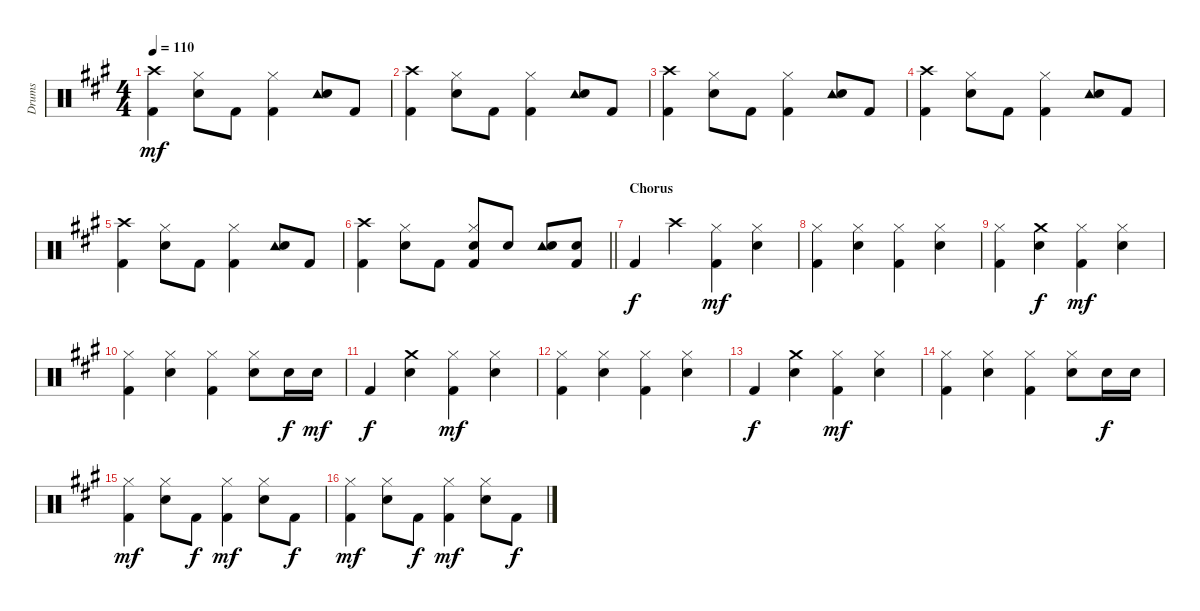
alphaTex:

\track ("Drums" "Drums") {instrument percussion}
\staff {score}
\articulation defaults
\ts (4 4)
\tempo 110
\clef neutral
\ks a
("Crash high (hit)" "Kick (hit) 2").4{dy mf} ("Hi-Hat (closed)" "Snare (hit) 2").8 "Kick (hit) 2".8 ("Hi-Hat (closed)" "Kick (hit) 2").4 ("Tambourine (hit)" "Snare (hit) 2").8 "Kick (hit) 2".8 |
("Crash high (hit)" "Kick (hit) 2").4 ("Hi-Hat (closed)" "Snare (hit) 2").8 "Kick (hit) 2".8 ("Hi-Hat (closed)" "Kick (hit) 2").4 ("Tambourine (hit)" "Snare (hit) 2").8 "Kick (hit) 2".8 |
("Crash high (hit)" "Kick (hit) 2").4 ("Hi-Hat (closed)" "Snare (hit) 2").8 "Kick (hit) 2".8 ("Hi-Hat (closed)" "Kick (hit) 2").4 ("Tambourine (hit)" "Snare (hit) 2").8 "Kick (hit) 2".8 |
("Crash high (hit)" "Kick (hit) 2").4 ("Hi-Hat (closed)" "Snare (hit) 2").8 "Kick (hit) 2".8 ("Hi-Hat (closed)" "Kick (hit) 2").4 ("Tambourine (hit)" "Snare (hit) 2").8 "Kick (hit) 2".8 |
("Crash high (hit)" "Kick (hit) 2").4 ("Hi-Hat (closed)" "Snare (hit) 2").8 "Kick (hit) 2".8 ("Hi-Hat (closed)" "Kick (hit) 2").4 ("Tambourine (hit)" "Snare (hit) 2").8 "Kick (hit) 2".8 |
\barLineRight lightlight
("Crash high (hit)" "Kick (hit) 2").4 ("Hi-Hat (closed)" "Snare (hit) 2").8 "Kick (hit) 2".8 ("Hi-Hat (closed)" "Snare (hit) 2" "Kick (hit) 2").8 "Snare (hit) 2".8 ("Tambourine (hit)" "Snare (hit) 2").8 ("Snare (hit) 2" "Kick (hit) 2").8 |
\section ("" "Chorus")
"Kick (hit) 2".4{dy f} "Crash high (hit)".4 ("Hi-Hat (closed)" "Kick (hit) 2").4{dy mf} ("Hi-Hat (closed)" "Snare (hit) 2").4 |
("Hi-Hat (closed)" "Kick (hit) 2").4 ("Hi-Hat (closed)" "Snare (hit) 2").4 ("Hi-Hat (closed)" "Kick (hit) 2").4 ("Hi-Hat (closed)" "Snare (hit) 2").4 |
("Hi-Hat (closed)" "Kick (hit) 2").4 ("Crash medium (hit)" "Snare (hit) 2").4{dy f} ("Hi-Hat (closed)" "Kick (hit) 2").4{dy mf} ("Hi-Hat (closed)" "Snare (hit) 2").4 |
("Hi-Hat (closed)" "Kick (hit) 2").4 ("Hi-Hat (closed)" "Snare (hit) 2").4 ("Hi-Hat (closed)" "Kick (hit) 2").4 ("Hi-Hat (closed)" "Snare (hit) 2").8 "Snare (hit) 2".16{dy f} "Snare (hit) 2".16{dy mf} |
"Kick (hit) 2".4{dy f} ("Crash medium (hit)" "Snare (hit) 2").4 ("Hi-Hat (closed)" "Kick (hit) 2").4{dy mf} ("Hi-Hat (closed)" "Snare (hit) 2").4 |
("Hi-Hat (closed)" "Kick (hit) 2").4 ("Hi-Hat (closed)" "Snare (hit) 2").4 ("Hi-Hat (closed)" "Kick (hit) 2").4 ("Hi-Hat (closed)" "Snare (hit) 2").4 |
"Kick (hit) 2".4{dy f} ("Crash medium (hit)" "Snare (hit) 2").4 ("Hi-Hat (closed)" "Kick (hit) 2").4{dy mf} ("Hi-Hat (closed)" "Snare (hit) 2").4 |
("Hi-Hat (closed)" "Kick (hit) 2").4 ("Hi-Hat (closed)" "Snare (hit) 2").4 ("Hi-Hat (closed)" "Kick (hit) 2").4 ("Hi-Hat (closed)" "Snare (hit) 2").8 "Snare (hit) 2".16{dy f} "Snare (hit) 2".16 |
("Hi-Hat (closed)" "Kick (hit) 2").4{dy mf} ("Hi-Hat (closed)" "Snare (hit) 2").8 "Kick (hit) 2".8{dy f} ("Hi-Hat (closed)" "Kick (hit) 2").4{dy mf} ("Hi-Hat (closed)" "Snare (hit) 2").8 "Kick (hit) 2".8{dy f} |
("Hi-Hat (closed)" "Kick (hit) 2").4{dy mf} ("Hi-Hat (closed)" "Snare (hit) 2").8 "Kick (hit) 2".8{dy f} ("Hi-Hat (closed)" "Kick (hit) 2").4{dy mf} ("Hi-Hat (closed)" "Snare (hit) 2").8 "Kick (hit) 2".8{dy f}
